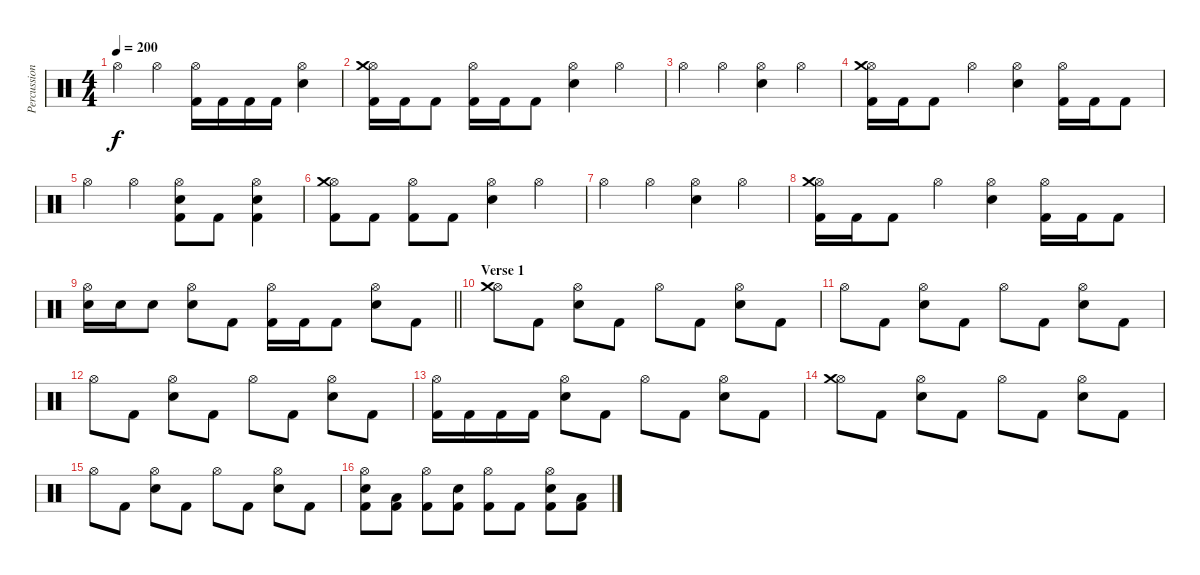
\track ("Percussions" "Percussion") {instrument percussion}
\staff {score}
\articulation defaults
\ts (4 4)
\tempo 200
\clef neutral
\ks c "Hi-Hat (open)".4{dy f} "Hi-Hat (open)".4
("Hi-Hat (open)" "Kick (hit) 2").16 "Kick (hit) 2".16 "Kick (hit) 2".16 "Kick (hit) 2".16 ("Hi-Hat (open)" "Electric Snare (hit)").4 |
("Hi-Hat (open)" "Crash medium (hit)" "Kick (hit) 2").16 "Kick (hit) 2".16 "Kick (hit) 2".8 ("Hi-Hat (open)" "Kick (hit) 2").16 "Kick (hit) 2".16 "Kick (hit) 2".8 ("Hi-Hat (open)" "Electric Snare (hit)").4 "Hi-Hat (open)".4 |
"Hi-Hat (open)".4 "Hi-Hat (open)".4 ("Hi-Hat (open)" "Electric Snare (hit)").4 "Hi-Hat (open)".4 |
("Hi-Hat (open)" "Crash medium (hit)" "Kick (hit) 2").16 "Kick (hit) 2".16 "Kick (hit) 2".8 "Hi-Hat (open)".4 ("Hi-Hat (open)" "Electric Snare (hit)").4 ("Hi-Hat (open)" "Kick (hit) 2").16 "Kick (hit) 2".16 "Kick (hit) 2".8 |
"Hi-Hat (open)".4 "Hi-Hat (open)".4 ("Hi-Hat (open)" "Electric Snare (hit)" "Kick (hit) 2").8 "Kick (hit) 2".8 ("Hi-Hat (open)" "Electric Snare (hit)" "Kick (hit) 2").4 |
("Hi-Hat (open)" "Crash medium (hit)" "Kick (hit) 2").8 "Kick (hit) 2".8 ("Hi-Hat (open)" "Kick (hit) 2").8 "Kick (hit) 2".8 ("Hi-Hat (open)" "Electric Snare (hit)").4 "Hi-Hat (open)".4 |
"Hi-Hat (open)".4 "Hi-Hat (open)".4 ("Hi-Hat (open)" "Electric Snare (hit)").4 "Hi-Hat (open)".4 |
("Hi-Hat (open)" "Crash medium (hit)" "Kick (hit) 2").16 "Kick (hit) 2".16 "Kick (hit) 2".8 "Hi-Hat (open)".4 ("Hi-Hat (open)" "Electric Snare (hit)").4 ("Hi-Hat (open)" "Kick (hit) 2").16 "Kick (hit) 2".16 "Kick (hit) 2".8 |
\barLineRight lightlight
("Hi-Hat (open)" "Electric Snare (hit)").16 "Electric Snare (hit)".16 "Electric Snare (hit)".8 ("Hi-Hat (open)" "Electric Snare (hit)").8 "Kick (hit) 2".8 ("Hi-Hat (open)" "Kick (hit) 2").16 "Kick (hit) 2".16 "Kick (hit) 2".8 ("Hi-Hat (open)" "Electric Snare (hit)").8 "Kick (hit) 2".8 |
\section ("" "Verse 1")
("Hi-Hat (open)" "Crash medium (hit)").8 "Kick (hit) 2".8 ("Hi-Hat (open)" "Electric Snare (hit)").8 "Kick (hit) 2".8 "Hi-Hat (open)".8 "Kick (hit) 2".8 ("Hi-Hat (open)" "Electric Snare (hit)").8 "Kick (hit) 2".8 |
"Hi-Hat (open)".8 "Kick (hit) 2".8 ("Hi-Hat (open)" "Electric Snare (hit)").8 "Kick (hit) 2".8 "Hi-Hat (open)".8 "Kick (hit) 2".8 ("Hi-Hat (open)" "Electric Snare (hit)").8 "Kick (hit) 2".8 |
"Hi-Hat (open)".8 "Kick (hit) 2".8 ("Hi-Hat (open)" "Electric Snare (hit)").8 "Kick (hit) 2".8 "Hi-Hat (open)".8 "Kick (hit) 2".8 ("Hi-Hat (open)" "Electric Snare (hit)").8 "Kick (hit) 2".8 |
("Hi-Hat (open)" "Kick (hit) 2").16 "Kick (hit) 2".16 "Kick (hit) 2".16 "Kick (hit) 2".16 ("Hi-Hat (open)" "Electric Snare (hit)").8 "Kick (hit) 2".8 "Hi-Hat (open)".8 "Kick (hit) 2".8 ("Hi-Hat (open)" "Electric Snare (hit)").8 "Kick (hit) 2".8 |
("Hi-Hat (open)" "Crash medium (hit)").8 "Kick (hit) 2".8 ("Hi-Hat (open)" "Electric Snare (hit)").8 "Kick (hit) 2".8 "Hi-Hat (open)".8 "Kick (hit) 2".8 ("Hi-Hat (open)" "Electric Snare (hit)").8 "Kick (hit) 2".8 |
"Hi-Hat (open)".8 "Kick (hit) 2".8 ("Hi-Hat (open)" "Electric Snare (hit)").8 "Kick (hit) 2".8 "Hi-Hat (open)".8 "Kick (hit) 2".8 ("Hi-Hat (open)" "Electric Snare (hit)").8 "Kick (hit) 2".8 |
("Hi-Hat (open)" "Electric Snare (hit)" "Kick (hit) 2").8 ("Low Tom (hit)" "Kick (hit) 2").8 ("Hi-Hat (open)" "Kick (hit) 2").8 ("Electric Snare (hit)" "Kick (hit) 2").8 ("Hi-Hat (open)" "Kick (hit) 2").8 "Kick (hit) 2".8 ("Hi-Hat (open)" "Electric Snare (hit)" "Kick (hit) 2").8 ("Low Tom (hit)" "Kick (hit) 2").8
